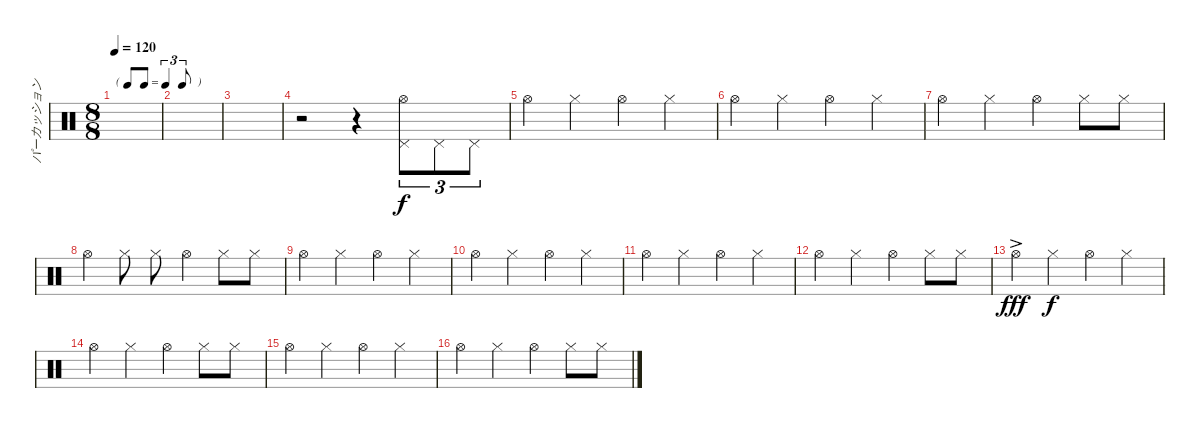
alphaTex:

\track ("パーカッション" "パーカッション") {instrument percussion}
\staff {score}
\articulation defaults
\ts (8 8)
\tf triplet8th
\tempo 120
\clef neutral
\ks c
|
|
|
r.2 r.4 ("Hi-Hat (open)" "Pedal Hi-Hat (hit)").8{tu (3 2)} "Pedal Hi-Hat (hit)".8{tu (3 2)} "Pedal Hi-Hat (hit)".8{tu (3 2)} |
"Hi-Hat (open)".4 "Hi-Hat (closed)".4 "Hi-Hat (open)".4 "Hi-Hat (closed)".4 |
"Hi-Hat (open)".4 "Hi-Hat (closed)".4 "Hi-Hat (open)".4 "Hi-Hat (closed)".4 |
"Hi-Hat (open)".4 "Hi-Hat (closed)".4 "Hi-Hat (open)".4 "Hi-Hat (closed)".8 "Hi-Hat (closed)".8 |
"Hi-Hat (open)".4 "Hi-Hat (closed)".8 "Hi-Hat (closed)".8 "Hi-Hat (open)".4 "Hi-Hat (closed)".8 "Hi-Hat (closed)".8 |
"Hi-Hat (open)".4 "Hi-Hat (closed)".4 "Hi-Hat (open)".4 "Hi-Hat (closed)".4 |
"Hi-Hat (open)".4 "Hi-Hat (closed)".4 "Hi-Hat (open)".4 "Hi-Hat (closed)".4 |
"Hi-Hat (open)".4 "Hi-Hat (closed)".4 "Hi-Hat (open)".4 "Hi-Hat (closed)".4 |
"Hi-Hat (open)".4 "Hi-Hat (closed)".4 "Hi-Hat (open)".4 "Hi-Hat (closed)".8 "Hi-Hat (closed)".8 |
"Hi-Hat (open)"{ac}.4{dy fff} "Hi-Hat (closed)".4{dy f} "Hi-Hat (open)".4 "Hi-Hat (closed)".4 |
"Hi-Hat (open)".4 "Hi-Hat (closed)".4 "Hi-Hat (open)".4 "Hi-Hat (closed)".8 "Hi-Hat (closed)".8 |
"Hi-Hat (open)".4 "Hi-Hat (closed)".4 "Hi-Hat (open)".4 "Hi-Hat (closed)".4 |
"Hi-Hat (open)".4 "Hi-Hat (closed)".4 "Hi-Hat (open)".4 "Hi-Hat (closed)".8 "Hi-Hat (closed)".8
